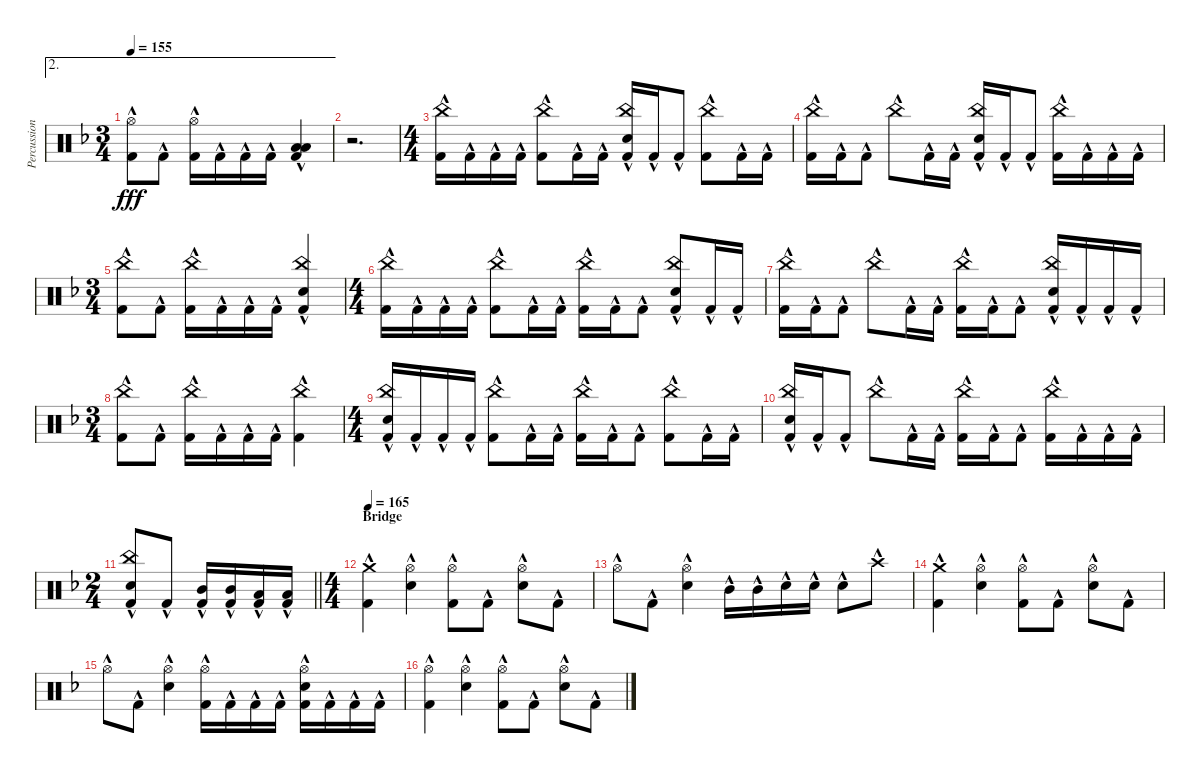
\track ("Percussion" "Percussion") {instrument percussion}
\staff {score}
\articulation defaults
\ae 2
\ts (3 4)
\tempo 155
\clef neutral
\ks f
("Hi-Hat (open)"{hac} "Kick (hit) 2"{hac}).8{dy fff} "Kick (hit) 2"{hac}.8 ("Hi-Hat (open)"{hac} "Kick (hit) 2"{hac}).16 "Kick (hit) 2"{hac}.16 "Kick (hit) 2"{hac}.16 "Kick (hit) 2"{hac}.16 ("Low Tom (hit)"{hac} "Low Floor Tom (hit)"{hac} "Kick (hit) 2"{hac}).4 |
r.2{d} |
\ts (4 4)
("China (hit)"{hac} "Kick (hit) 2"{hac}).16 "Kick (hit) 2"{hac}.16 "Kick (hit) 2"{hac}.16 "Kick (hit) 2"{hac}.16 ("China (hit)"{hac} "Kick (hit) 2"{hac}).8 "Kick (hit) 2"{hac}.16 "Kick (hit) 2"{hac}.16 ("China (hit)"{hac} "Electric Snare (hit)"{hac} "Kick (hit) 2"{hac}).16 "Kick (hit) 2"{hac}.16 "Kick (hit) 2"{hac}.8 ("China (hit)"{hac} "Kick (hit) 2"{hac}).8 "Kick (hit) 2"{hac}.16 "Kick (hit) 2"{hac}.16 |
("China (hit)"{hac} "Kick (hit) 2"{hac}).16 "Kick (hit) 2"{hac}.16 "Kick (hit) 2"{hac}.8 "China (hit)"{hac}.8 "Kick (hit) 2"{hac}.16 "Kick (hit) 2"{hac}.16 ("China (hit)"{hac} "Electric Snare (hit)"{hac} "Kick (hit) 2"{hac}).16 "Kick (hit) 2"{hac}.16 "Kick (hit) 2"{hac}.8 ("China (hit)"{hac} "Kick (hit) 2"{hac}).16 "Kick (hit) 2"{hac}.16 "Kick (hit) 2"{hac}.16 "Kick (hit) 2"{hac}.16 |
\ts (3 4)
("China (hit)"{hac} "Kick (hit) 2"{hac}).8 "Kick (hit) 2"{hac}.8 ("China (hit)"{hac} "Kick (hit) 2"{hac}).16 "Kick (hit) 2"{hac}.16 "Kick (hit) 2"{hac}.16 "Kick (hit) 2"{hac}.16 ("China (hit)"{hac} "Electric Snare (hit)"{hac} "Kick (hit) 2"{hac}).4 |
\ts (4 4)
("China (hit)"{hac} "Kick (hit) 2"{hac}).16 "Kick (hit) 2"{hac}.16 "Kick (hit) 2"{hac}.16 "Kick (hit) 2"{hac}.16 ("China (hit)"{hac} "Kick (hit) 2"{hac}).8 "Kick (hit) 2"{hac}.16 "Kick (hit) 2"{hac}.16 ("China (hit)"{hac} "Kick (hit) 2"{hac}).16 "Kick (hit) 2"{hac}.16 "Kick (hit) 2"{hac}.8 ("China (hit)"{hac} "Electric Snare (hit)"{hac} "Kick (hit) 2"{hac}).8 "Kick (hit) 2"{hac}.16 "Kick (hit) 2"{hac}.16 |
("China (hit)"{hac} "Kick (hit) 2"{hac}).16 "Kick (hit) 2"{hac}.16 "Kick (hit) 2"{hac}.8 "China (hit)"{hac}.8 "Kick (hit) 2"{hac}.16 "Kick (hit) 2"{hac}.16 ("China (hit)"{hac} "Kick (hit) 2"{hac}).16 "Kick (hit) 2"{hac}.16 "Kick (hit) 2"{hac}.8 ("China (hit)"{hac} "Electric Snare (hit)"{hac} "Kick (hit) 2"{hac}).16 "Kick (hit) 2"{hac}.16 "Kick (hit) 2"{hac}.16 "Kick (hit) 2"{hac}.16 |
\ts (3 4)
("China (hit)"{hac} "Kick (hit) 2"{hac}).8 "Kick (hit) 2"{hac}.8 ("China (hit)"{hac} "Kick (hit) 2"{hac}).16 "Kick (hit) 2"{hac}.16 "Kick (hit) 2"{hac}.16 "Kick (hit) 2"{hac}.16 ("China (hit)"{hac} "Kick (hit) 2"{hac}).4 |
\ts (4 4)
("China (hit)"{hac} "Electric Snare (hit)"{hac} "Kick (hit) 2"{hac}).16 "Kick (hit) 2"{hac}.16 "Kick (hit) 2"{hac}.16 "Kick (hit) 2"{hac}.16 ("China (hit)"{hac} "Kick (hit) 2"{hac}).8 "Kick (hit) 2"{hac}.16 "Kick (hit) 2"{hac}.16 ("China (hit)"{hac} "Kick (hit) 2"{hac}).16 "Kick (hit) 2"{hac}.16 "Kick (hit) 2"{hac}.8 ("China (hit)"{hac} "Kick (hit) 2"{hac}).8 "Kick (hit) 2"{hac}.16 "Kick (hit) 2"{hac}.16 |
("China (hit)"{hac} "Electric Snare (hit)"{hac} "Kick (hit) 2"{hac}).16 "Kick (hit) 2"{hac}.16 "Kick (hit) 2"{hac}.8 "China (hit)"{hac}.8 "Kick (hit) 2"{hac}.16 "Kick (hit) 2"{hac}.16 ("China (hit)"{hac} "Kick (hit) 2"{hac}).16 "Kick (hit) 2"{hac}.16 "Kick (hit) 2"{hac}.8 ("China (hit)"{hac} "Kick (hit) 2"{hac}).16 "Kick (hit) 2"{hac}.16 "Kick (hit) 2"{hac}.16 "Kick (hit) 2"{hac}.16 |
\ts (2 4)
\barLineRight lightlight
("China (hit)"{hac} "Electric Snare (hit)"{hac} "Kick (hit) 2"{hac}).8 "Kick (hit) 2"{hac}.8 ("Mid Tom (hit)"{hac} "Kick (hit) 2"{hac}).16 ("Mid Tom (hit)"{hac} "Kick (hit) 2"{hac}).16 ("Low Tom (hit)"{hac} "Kick (hit) 2"{hac}).16 ("Low Tom (hit)"{hac} "Kick (hit) 2"{hac}).16 |
\ts (4 4)
\section ("" "Bridge")
\tempo 165
("Crash medium (hit)"{hac} "Kick (hit) 2"{hac}).4 ("Hi-Hat (open)"{hac} "Electric Snare (hit)"{hac}).4 ("Hi-Hat (open)"{hac} "Kick (hit) 2"{hac}).8 "Kick (hit) 2"{hac}.8 ("Hi-Hat (open)"{hac} "Electric Snare (hit)"{hac}).8 "Kick (hit) 2"{hac}.8 |
"Hi-Hat (open)"{hac}.8 "Kick (hit) 2"{hac}.8 ("Hi-Hat (open)"{hac} "Electric Snare (hit)"{hac}).4 "Mid Tom (hit)"{hac}.16 "Mid Tom (hit)"{hac}.16 "Electric Snare (hit)"{hac}.16 "Electric Snare (hit)"{hac}.16 "Electric Snare (hit)"{hac}.8 "Crash high (hit)"{hac}.8 |
("Crash medium (hit)"{hac} "Kick (hit) 2"{hac}).4 ("Hi-Hat (open)"{hac} "Electric Snare (hit)"{hac}).4 ("Hi-Hat (open)"{hac} "Kick (hit) 2"{hac}).8 "Kick (hit) 2"{hac}.8 ("Hi-Hat (open)"{hac} "Electric Snare (hit)"{hac}).8 "Kick (hit) 2"{hac}.8 |
"Hi-Hat (open)"{hac}.8 "Kick (hit) 2"{hac}.8 ("Hi-Hat (open)"{hac} "Electric Snare (hit)"{hac}).4 ("Hi-Hat (open)"{hac} "Kick (hit) 2"{hac}).16 "Kick (hit) 2"{hac}.16 "Kick (hit) 2"{hac}.16 "Kick (hit) 2"{hac}.16 ("Hi-Hat (open)"{hac} "Electric Snare (hit)"{hac} "Kick (hit) 2"{hac}).16 "Kick (hit) 2"{hac}.16 "Kick (hit) 2"{hac}.16 "Kick (hit) 2"{hac}.16 |
("Hi-Hat (open)"{hac} "Kick (hit) 2"{hac}).4 ("Hi-Hat (open)"{hac} "Electric Snare (hit)"{hac}).4 ("Hi-Hat (open)"{hac} "Kick (hit) 2"{hac}).8 "Kick (hit) 2"{hac}.8 ("Hi-Hat (open)"{hac} "Electric Snare (hit)"{hac}).8 "Kick (hit) 2"{hac}.8
